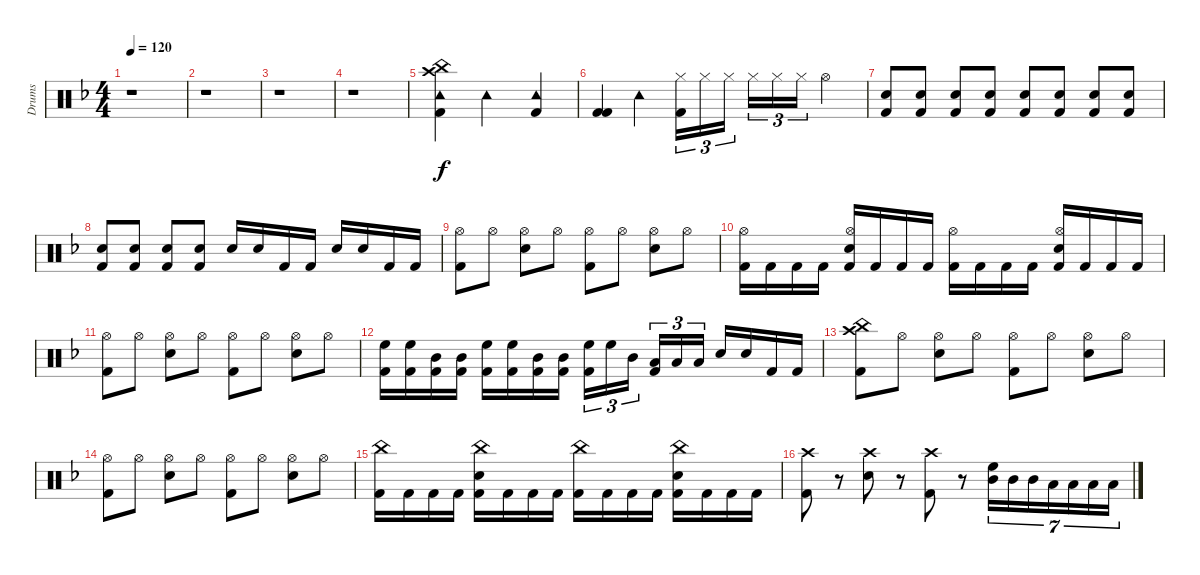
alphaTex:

\track ("Drums" "Drums") {instrument percussion}
\staff {score}
\articulation defaults
\ts (4 4)
\tempo 120
\clef neutral
\ks dminor
r.1{dy f} |
r.1 |
r.1 |
r.1 |
("Crash high (hit)" "China (hit)" "Tambourine (hit)" "Kick (hit) 2").4 "Tambourine (hit)".2 ("Tambourine (hit)" "Kick (hit) 2").4 |
("Kick (hit) 2" "Kick (hit) 2").4 "Tambourine (hit)".4 ("Hi-Hat (closed)" "Kick (hit) 2").16{tu (3 2)} "Hi-Hat (closed)".16{tu (3 2)} "Hi-Hat (closed)".16{tu (3 2)} "Hi-Hat (closed)".16{tu (3 2)} "Hi-Hat (closed)".16{tu (3 2)} "Hi-Hat (closed)".16{tu (3 2)} "Hi-Hat (open)".4 |
("Snare (hit) 2" "Kick (hit) 2").8{volume 0} ("Snare (hit) 2" "Kick (hit) 2").8{volume 1} ("Snare (hit) 2" "Kick (hit) 2").8{volume 2} ("Snare (hit) 2" "Kick (hit) 2").8{volume 3} ("Snare (hit) 2" "Kick (hit) 2").8{volume 4} ("Snare (hit) 2" "Kick (hit) 2").8{volume 5} ("Snare (hit) 2" "Kick (hit) 2").8{volume 6} ("Snare (hit) 2" "Kick (hit) 2").8{volume 7} |
("Snare (hit) 2" "Kick (hit) 2").8{volume 8} ("Snare (hit) 2" "Kick (hit) 2").8{volume 9} ("Snare (hit) 2" "Kick (hit) 2").8{volume 10} ("Snare (hit) 2" "Kick (hit) 2").8{volume 11} "Snare (hit) 2".16{volume 12} "Snare (hit) 2".16 "Kick (hit) 2".16 "Kick (hit) 2".16 "Snare (hit) 2".16{volume 13} "Snare (hit) 2".16 "Kick (hit) 2".16 "Kick (hit) 2".16 |
("Hi-Hat (open)" "Kick (hit) 2").8 "Hi-Hat (open)".8 ("Hi-Hat (open)" "Snare (hit) 2").8 "Hi-Hat (open)".8 ("Hi-Hat (open)" "Kick (hit) 2").8 "Hi-Hat (open)".8 ("Hi-Hat (open)" "Snare (hit) 2").8 "Hi-Hat (open)".8 |
("Hi-Hat (open)" "Kick (hit) 2").16 "Kick (hit) 2".16 "Kick (hit) 2".16 "Kick (hit) 2".16 ("Snare (hit) 2" "Hi-Hat (open)" "Kick (hit) 2").16 "Kick (hit) 2".16 "Kick (hit) 2".16 "Kick (hit) 2".16 ("Hi-Hat (open)" "Kick (hit) 2").16 "Kick (hit) 2".16 "Kick (hit) 2".16 "Kick (hit) 2".16 ("Snare (hit) 2" "Hi-Hat (open)" "Kick (hit) 2").16 "Kick (hit) 2".16 "Kick (hit) 2".16 "Kick (hit) 2".16 |
("Hi-Hat (open)" "Kick (hit) 2").8 "Hi-Hat (open)".8 ("Hi-Hat (open)" "Snare (hit) 2").8 "Hi-Hat (open)".8 ("Hi-Hat (open)" "Kick (hit) 2").8 "Hi-Hat (open)".8 ("Hi-Hat (open)" "Snare (hit) 2").8 "Hi-Hat (open)".8 |
("High Floor Tom (hit)" "Kick (hit) 2").16 ("High Floor Tom (hit)" "Kick (hit) 2").16 ("Mid Tom (hit)" "Kick (hit) 2").16 ("Mid Tom (hit)" "Kick (hit) 2").16 ("High Floor Tom (hit)" "Kick (hit) 2").16 ("High Floor Tom (hit)" "Kick (hit) 2").16 ("Mid Tom (hit)" "Kick (hit) 2").16 ("Mid Tom (hit)" "Kick (hit) 2").16 ("High Floor Tom (hit)" "Kick (hit) 2").16{tu (3 2)} "High Floor Tom (hit)".16{tu (3 2)} "Mid Tom (hit)".16{tu (3 2)} ("Low Tom (hit)" "Kick (hit) 2").16{tu (3 2)} "Low Tom (hit)".16{tu (3 2)} "Low Floor Tom (hit)".16{tu (3 2)} "Snare (hit) 2".16 "Snare (hit) 2".16 "Kick (hit) 2".16 "Kick (hit) 2".16 |
("Crash high (hit)" "China (hit)" "Kick (hit) 2").8 "Hi-Hat (open)".8 ("Hi-Hat (open)" "Snare (hit) 2").8 "Hi-Hat (open)".8 ("Hi-Hat (open)" "Kick (hit) 2").8 "Hi-Hat (open)".8 ("Hi-Hat (open)" "Snare (hit) 2").8 "Hi-Hat (open)".8 |
("Hi-Hat (open)" "Kick (hit) 2").8 "Hi-Hat (open)".8 ("Hi-Hat (open)" "Snare (hit) 2").8 "Hi-Hat (open)".8 ("Hi-Hat (open)" "Kick (hit) 2").8 "Hi-Hat (open)".8 ("Hi-Hat (open)" "Snare (hit) 2").8 "Hi-Hat (open)".8 |
("China (hit)" "Kick (hit) 2").16 "Kick (hit) 2".16 "Kick (hit) 2".16 "Kick (hit) 2".16 ("China (hit)" "Snare (hit) 2" "Kick (hit) 2").16 "Kick (hit) 2".16 "Kick (hit) 2".16 "Kick (hit) 2".16 ("China (hit)" "Kick (hit) 2").16 "Kick (hit) 2".16 "Kick (hit) 2".16 "Kick (hit) 2".16 ("China (hit)" "Snare (hit) 2" "Kick (hit) 2").16 "Kick (hit) 2".16 "Kick (hit) 2".16 "Kick (hit) 2".16 |
("Crash high (hit)" "Kick (hit) 2").8 r.8 ("Crash high (hit)" "Snare (hit) 2").8 r.8 ("Crash high (hit)" "Kick (hit) 2").8 r.8 ("High Floor Tom (hit)" "Mid Tom (hit)").16{tu (7 4)} "Mid Tom (hit)".16{tu (7 4)} "Mid Tom (hit)".16{tu (7 4)} "Low Tom (hit)".16{tu (7 4)} "Low Tom (hit)".16{tu (7 4)} "Low Floor Tom (hit)".16{tu (7 4)} "Low Floor Tom (hit)".16{tu (7 4)}
